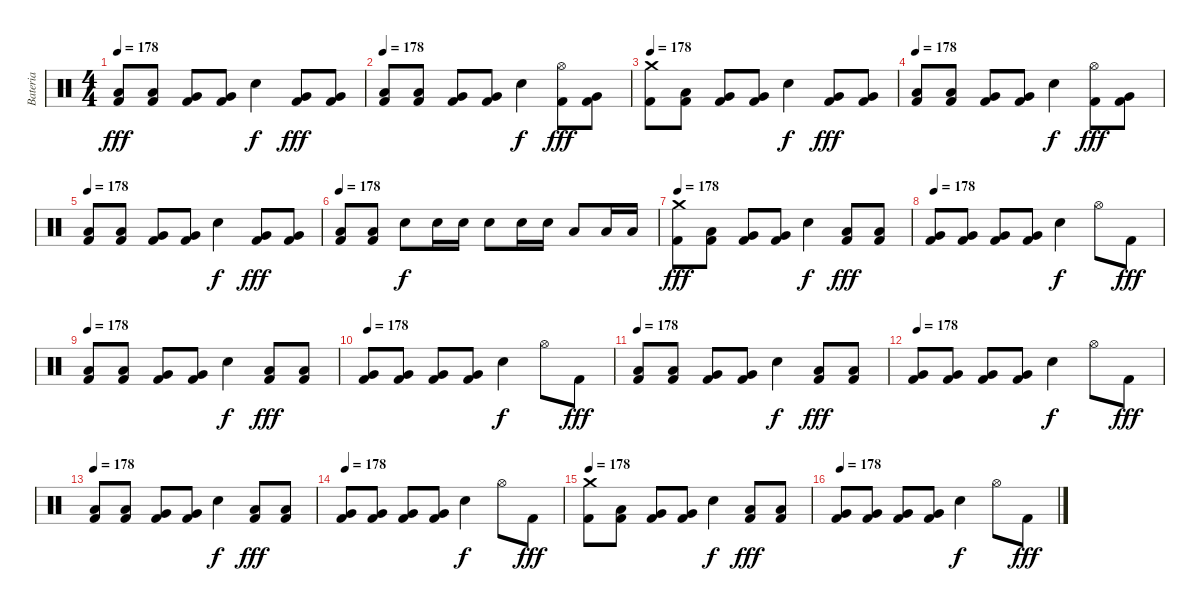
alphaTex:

\track ("Bateria" "Bateria") {instrument percussion}
\staff {score}
\articulation defaults
\ts (4 4)
\tempo 178
\clef neutral
\ks c
("Low Tom (hit)" "Kick (hit) 2").8{dy fff} ("Low Tom (hit)" "Kick (hit) 2").8 ("Very Low Tom (hit)" "Kick (hit) 2").8 ("Very Low Tom (hit)" "Kick (hit) 2").8 "Electric Snare (hit)".4{dy f} ("Very Low Tom (hit)" "Kick (hit) 2").8{dy fff} ("Very Low Tom (hit)" "Kick (hit) 2").8 |
\tempo 178
("Low Tom (hit)" "Kick (hit) 2").8 ("Low Tom (hit)" "Kick (hit) 2").8 ("Very Low Tom (hit)" "Kick (hit) 2").8 ("Very Low Tom (hit)" "Kick (hit) 2").8 "Electric Snare (hit)".4{dy f} ("Hi-Hat (open)" "Kick (hit) 2").8{dy fff} ("Very Low Tom (hit)" "Kick (hit) 2").8 |
\tempo 178
("Crash medium (hit)" "Kick (hit) 2").8 ("Low Tom (hit)" "Kick (hit) 2").8 ("Very Low Tom (hit)" "Kick (hit) 2").8 ("Very Low Tom (hit)" "Kick (hit) 2").8 "Electric Snare (hit)".4{dy f} ("Very Low Tom (hit)" "Kick (hit) 2").8{dy fff} ("Very Low Tom (hit)" "Kick (hit) 2").8 |
\tempo 178
("Low Tom (hit)" "Kick (hit) 2").8 ("Low Tom (hit)" "Kick (hit) 2").8 ("Very Low Tom (hit)" "Kick (hit) 2").8 ("Very Low Tom (hit)" "Kick (hit) 2").8 "Electric Snare (hit)".4{dy f} ("Hi-Hat (open)" "Kick (hit) 2").8{dy fff} ("Very Low Tom (hit)" "Kick (hit) 2").8 |
\tempo 178
("Low Tom (hit)" "Kick (hit) 2").8 ("Low Tom (hit)" "Kick (hit) 2").8 ("Very Low Tom (hit)" "Kick (hit) 2").8 ("Very Low Tom (hit)" "Kick (hit) 2").8 "Electric Snare (hit)".4{dy f} ("Very Low Tom (hit)" "Kick (hit) 2").8{dy fff} ("Very Low Tom (hit)" "Kick (hit) 2").8 |
\tempo 178
("Low Tom (hit)" "Kick (hit) 2").8 ("Low Tom (hit)" "Kick (hit) 2").8 "Electric Snare (hit)".8{dy f} "Electric Snare (hit)".16 "Electric Snare (hit)".16 "Electric Snare (hit)".8 "Electric Snare (hit)".16 "Electric Snare (hit)".16 "Low Tom (hit)".8 "Low Tom (hit)".16 "Low Tom (hit)".16 |
\tempo 178
("Crash medium (hit)" "Kick (hit) 2").8{dy fff} ("Low Tom (hit)" "Kick (hit) 2").8 ("Very Low Tom (hit)" "Kick (hit) 2").8 ("Very Low Tom (hit)" "Kick (hit) 2").8 "Electric Snare (hit)".4{dy f} ("Low Tom (hit)" "Kick (hit) 2").8{dy fff} ("Low Tom (hit)" "Kick (hit) 2").8 |
\tempo 178
("Very Low Tom (hit)" "Kick (hit) 2").8 ("Very Low Tom (hit)" "Kick (hit) 2").8 ("Very Low Tom (hit)" "Kick (hit) 2").8 ("Very Low Tom (hit)" "Kick (hit) 2").8 "Electric Snare (hit)".4{dy f} "Hi-Hat (open)".8 "Kick (hit) 2".8{dy fff} |
\tempo 178
("Low Tom (hit)" "Kick (hit) 2").8 ("Low Tom (hit)" "Kick (hit) 2").8 ("Very Low Tom (hit)" "Kick (hit) 2").8 ("Very Low Tom (hit)" "Kick (hit) 2").8 "Electric Snare (hit)".4{dy f} ("Low Tom (hit)" "Kick (hit) 2").8{dy fff} ("Low Tom (hit)" "Kick (hit) 2").8 |
\tempo 178
("Very Low Tom (hit)" "Kick (hit) 2").8 ("Very Low Tom (hit)" "Kick (hit) 2").8 ("Very Low Tom (hit)" "Kick (hit) 2").8 ("Very Low Tom (hit)" "Kick (hit) 2").8 "Electric Snare (hit)".4{dy f} "Hi-Hat (open)".8 "Kick (hit) 2".8{dy fff} |
\tempo 178
("Low Tom (hit)" "Kick (hit) 2").8 ("Low Tom (hit)" "Kick (hit) 2").8 ("Very Low Tom (hit)" "Kick (hit) 2").8 ("Very Low Tom (hit)" "Kick (hit) 2").8 "Electric Snare (hit)".4{dy f} ("Low Tom (hit)" "Kick (hit) 2").8{dy fff} ("Low Tom (hit)" "Kick (hit) 2").8 |
\tempo 178
("Very Low Tom (hit)" "Kick (hit) 2").8 ("Very Low Tom (hit)" "Kick (hit) 2").8 ("Very Low Tom (hit)" "Kick (hit) 2").8 ("Very Low Tom (hit)" "Kick (hit) 2").8 "Electric Snare (hit)".4{dy f} "Hi-Hat (open)".8 "Kick (hit) 2".8{dy fff} |
\tempo 178
("Low Tom (hit)" "Kick (hit) 2").8 ("Low Tom (hit)" "Kick (hit) 2").8 ("Very Low Tom (hit)" "Kick (hit) 2").8 ("Very Low Tom (hit)" "Kick (hit) 2").8 "Electric Snare (hit)".4{dy f} ("Low Tom (hit)" "Kick (hit) 2").8{dy fff} ("Low Tom (hit)" "Kick (hit) 2").8 |
\tempo 178
("Very Low Tom (hit)" "Kick (hit) 2").8 ("Very Low Tom (hit)" "Kick (hit) 2").8 ("Very Low Tom (hit)" "Kick (hit) 2").8 ("Very Low Tom (hit)" "Kick (hit) 2").8 "Electric Snare (hit)".4{dy f} "Hi-Hat (open)".8 "Kick (hit) 2".8{dy fff} |
\tempo 178
("Crash medium (hit)" "Kick (hit) 2").8 ("Low Tom (hit)" "Kick (hit) 2").8 ("Very Low Tom (hit)" "Kick (hit) 2").8 ("Very Low Tom (hit)" "Kick (hit) 2").8 "Electric Snare (hit)".4{dy f} ("Low Tom (hit)" "Kick (hit) 2").8{dy fff} ("Low Tom (hit)" "Kick (hit) 2").8 |
\tempo 178
("Very Low Tom (hit)" "Kick (hit) 2").8 ("Very Low Tom (hit)" "Kick (hit) 2").8 ("Very Low Tom (hit)" "Kick (hit) 2").8 ("Very Low Tom (hit)" "Kick (hit) 2").8 "Electric Snare (hit)".4{dy f} "Hi-Hat (open)".8 "Kick (hit) 2".8{dy fff}
